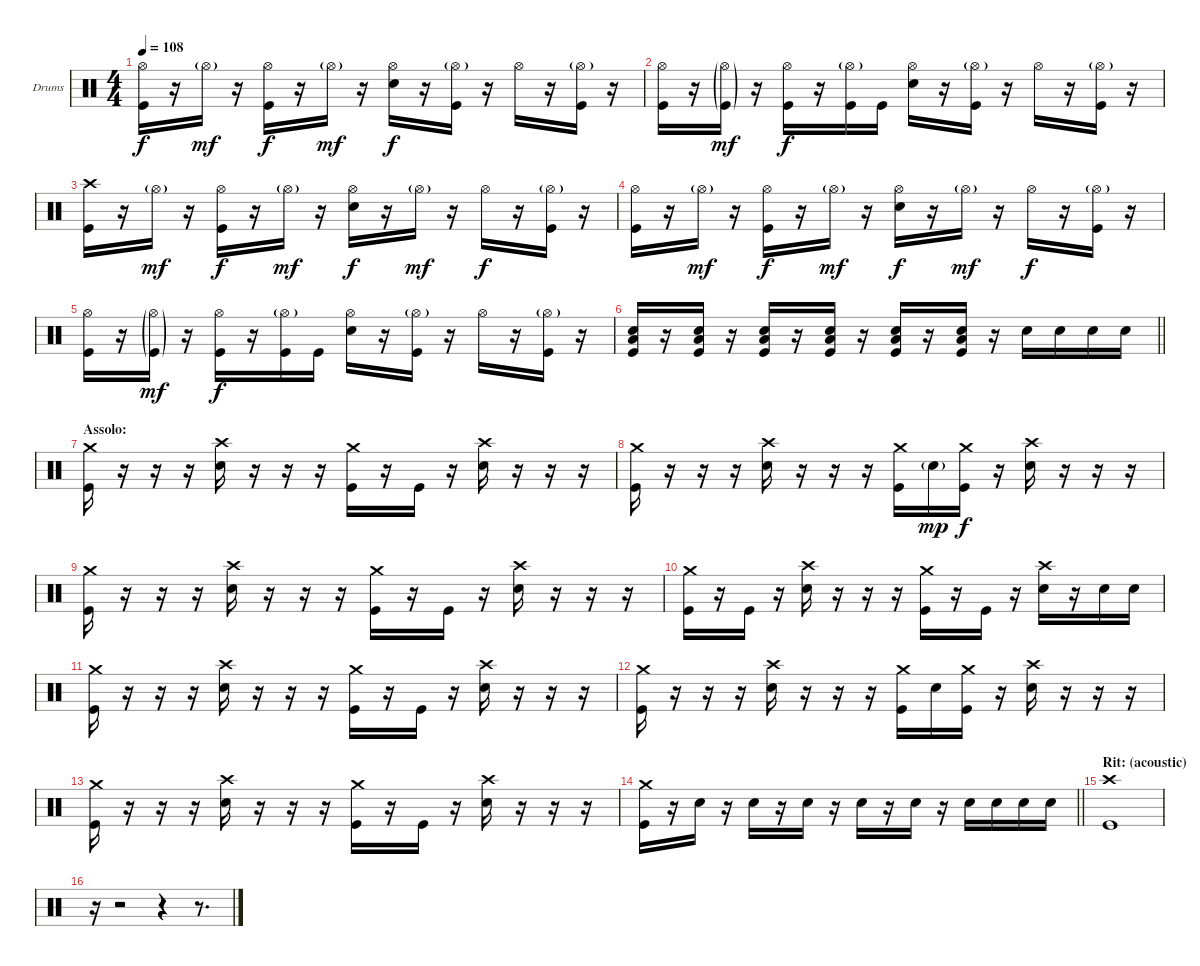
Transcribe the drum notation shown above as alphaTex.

\bracketExtendMode groupsimilarinstruments
\firstSystemTrackNameOrientation horizontal
\otherSystemsTrackNameOrientation horizontal
\track ("Drumkit" "Drums") {instrument percussion}
\staff {score}
\articulation defaults
\ts (4 4)
\tempo 108
\clef neutral
\ks c
("Kick (hit)" "Hi-Hat (open)").16{dy f} r.16 "Hi-Hat (open)"{g}.16{dy mf} r.16 ("Kick (hit)" "Hi-Hat (open)").16{dy f} r.16 "Hi-Hat (open)"{g}.16{dy mf} r.16 ("Snare (hit) 2" "Hi-Hat (open)").16{dy f} r.16 ("Kick (hit)" "Hi-Hat (open)"{g}).16 r.16 "Hi-Hat (open)".16 r.16 ("Kick (hit)" "Hi-Hat (open)"{g}).16 r.16 |
("Kick (hit)" "Hi-Hat (open)").16 r.16 ("Kick (hit)"{g} "Hi-Hat (open)"{g}).16{dy mf} r.16 ("Kick (hit)" "Hi-Hat (open)").16{dy f} r.16 ("Kick (hit)" "Hi-Hat (open)"{g}).16 "Kick (hit)".16 ("Snare (hit) 2" "Hi-Hat (open)").16 r.16 ("Kick (hit)" "Hi-Hat (open)"{g}).16 r.16 "Hi-Hat (open)".16 r.16 ("Kick (hit)" "Hi-Hat (open)"{g}).16 r.16 |
("Kick (hit)" "Crash high (hit)").16 r.16 "Hi-Hat (open)"{g}.16{dy mf} r.16 ("Kick (hit)" "Hi-Hat (open)").16{dy f} r.16 "Hi-Hat (open)"{g}.16{dy mf} r.16 ("Snare (hit) 2" "Hi-Hat (open)").16{dy f} r.16 "Hi-Hat (open)"{g}.16{dy mf} r.16 "Hi-Hat (open)".16{dy f} r.16 ("Kick (hit)" "Hi-Hat (open)"{g}).16 r.16 |
("Kick (hit)" "Hi-Hat (open)").16 r.16 "Hi-Hat (open)"{g}.16{dy mf} r.16 ("Kick (hit)" "Hi-Hat (open)").16{dy f} r.16 "Hi-Hat (open)"{g}.16{dy mf} r.16 ("Snare (hit) 2" "Hi-Hat (open)").16{dy f} r.16 "Hi-Hat (open)"{g}.16{dy mf} r.16 "Hi-Hat (open)".16{dy f} r.16 ("Kick (hit)" "Hi-Hat (open)"{g}).16 r.16 |
("Kick (hit)" "Hi-Hat (open)").16 r.16 ("Kick (hit)"{g} "Hi-Hat (open)"{g}).16{dy mf} r.16 ("Kick (hit)" "Hi-Hat (open)").16{dy f} r.16 ("Kick (hit)" "Hi-Hat (open)"{g}).16 "Kick (hit)".16 ("Snare (hit) 2" "Hi-Hat (open)").16 r.16 ("Kick (hit)" "Hi-Hat (open)"{g}).16 r.16 "Hi-Hat (open)".16 r.16 ("Kick (hit)" "Hi-Hat (open)"{g}).16 r.16 |
\barLineRight lightlight
("Kick (hit)" "Snare (hit) 2" "Low Tom (hit)").16 r.16 ("Kick (hit)" "Snare (hit) 2" "Low Tom (hit)").16 r.16 ("Kick (hit)" "Snare (hit) 2" "Low Tom (hit)").16 r.16 ("Kick (hit)" "Snare (hit) 2" "Low Tom (hit)").16 r.16 ("Kick (hit)" "Snare (hit) 2" "Low Tom (hit)").16 r.16 ("Kick (hit)" "Snare (hit) 2" "Low Tom (hit)").16 r.16 "Snare (hit) 2".16 "Snare (hit) 2".16 "Snare (hit) 2".16 "Snare (hit) 2".16 |
\section ("" "Assolo:")
("Kick (hit)" "Crash medium (hit)").16 r.16 r.16 r.16 ("Snare (hit) 2" "Crash high (hit)").16 r.16 r.16 r.16 ("Kick (hit)" "Crash medium (hit)").16 r.16 "Kick (hit)".16 r.16 ("Snare (hit) 2" "Crash high (hit)").16 r.16 r.16 r.16 |
("Kick (hit)" "Crash medium (hit)").16 r.16 r.16 r.16 ("Snare (hit) 2" "Crash high (hit)").16 r.16 r.16 r.16 ("Kick (hit)" "Crash medium (hit)").16 "Snare (hit) 2"{g}.16{dy mp} ("Kick (hit)" "Crash medium (hit)").16{dy f} r.16 ("Snare (hit) 2" "Crash high (hit)").16 r.16 r.16 r.16 |
("Kick (hit)" "Crash medium (hit)").16 r.16 r.16 r.16 ("Snare (hit) 2" "Crash high (hit)").16 r.16 r.16 r.16 ("Kick (hit)" "Crash medium (hit)").16 r.16 "Kick (hit)".16 r.16 ("Snare (hit) 2" "Crash high (hit)").16 r.16 r.16 r.16 |
("Kick (hit)" "Crash medium (hit)").16 r.16 "Kick (hit)".16 r.16 ("Snare (hit) 2" "Crash high (hit)").16 r.16 r.16 r.16 ("Kick (hit)" "Crash medium (hit)").16 r.16 "Kick (hit)".16 r.16 ("Snare (hit) 2" "Crash high (hit)").16 r.16 "Snare (hit) 2".16 "Snare (hit) 2".16 |
("Kick (hit)" "Crash medium (hit)").16 r.16 r.16 r.16 ("Snare (hit) 2" "Crash high (hit)").16 r.16 r.16 r.16 ("Kick (hit)" "Crash medium (hit)").16 r.16 "Kick (hit)".16 r.16 ("Snare (hit) 2" "Crash high (hit)").16 r.16 r.16 r.16 |
("Kick (hit)" "Crash medium (hit)").16 r.16 r.16 r.16 ("Snare (hit) 2" "Crash high (hit)").16 r.16 r.16 r.16 ("Kick (hit)" "Crash medium (hit)").16 "Snare (hit) 2".16 ("Kick (hit)" "Crash medium (hit)").16 r.16 ("Snare (hit) 2" "Crash high (hit)").16 r.16 r.16 r.16 |
("Kick (hit)" "Crash medium (hit)").16 r.16 r.16 r.16 ("Snare (hit) 2" "Crash high (hit)").16 r.16 r.16 r.16 ("Kick (hit)" "Crash medium (hit)").16 r.16 "Kick (hit)".16 r.16 ("Snare (hit) 2" "Crash high (hit)").16 r.16 r.16 r.16 |
\barLineRight lightlight
("Kick (hit)" "Crash medium (hit)").16 r.16 "Snare (hit) 2".16 r.16 "Snare (hit) 2".16 r.16 "Snare (hit) 2".16 r.16 "Snare (hit) 2".16 r.16 "Snare (hit) 2".16 r.16 "Snare (hit) 2".16 "Snare (hit) 2".16 "Snare (hit) 2".16 "Snare (hit) 2".16 |
\section ("" "Rit: (acoustic)")
("Kick (hit)" "Crash high (hit)").1 |
r.16 r.2 r.4 r.8{d}
